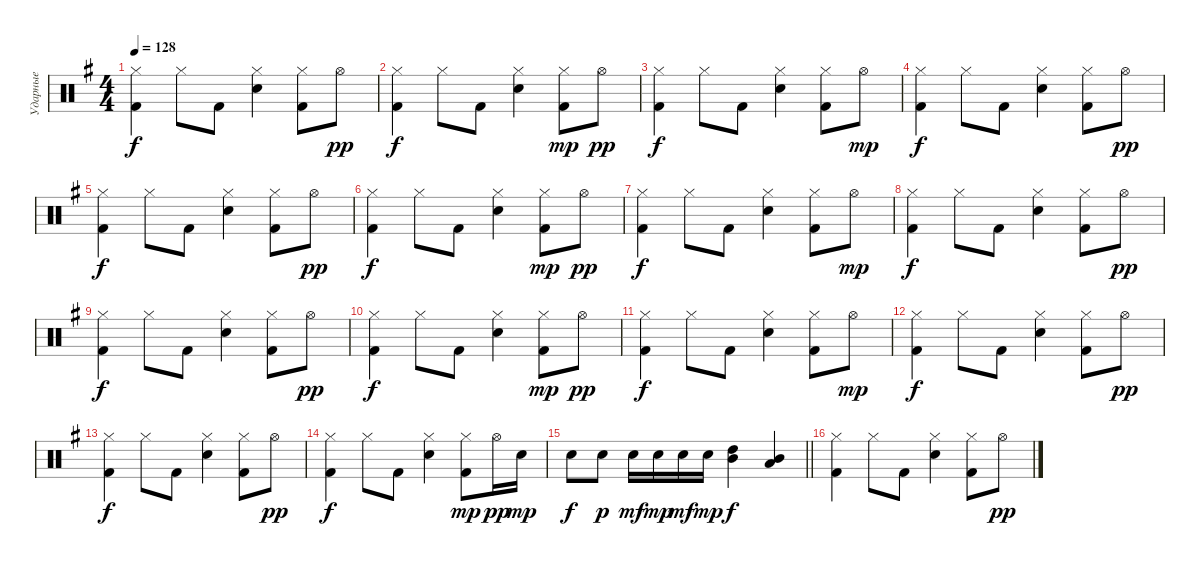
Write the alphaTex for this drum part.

\track ("Ударные" "Ударные") {instrument percussion}
\staff {score}
\articulation defaults
\ts (4 4)
\tempo 128
\clef neutral
\ks eminor
("Hi-Hat (closed)" "Kick (hit) 2").4{dy f} "Hi-Hat (closed)".8 "Kick (hit) 2".8 ("Snare (hit) 2" "Hi-Hat (closed)").4 ("Kick (hit) 2" "Hi-Hat (closed)").8 "Hi-Hat (open)".8{dy pp} |
("Hi-Hat (closed)" "Kick (hit) 2").4{dy f} "Hi-Hat (closed)".8 "Kick (hit) 2".8 ("Snare (hit) 2" "Hi-Hat (closed)").4 ("Kick (hit) 2" "Hi-Hat (closed)").8{dy mp} "Hi-Hat (open)".8{dy pp} |
("Hi-Hat (closed)" "Kick (hit) 2").4{dy f} "Hi-Hat (closed)".8 "Kick (hit) 2".8 ("Snare (hit) 2" "Hi-Hat (closed)").4 ("Kick (hit) 2" "Hi-Hat (closed)").8 "Hi-Hat (open)".8{dy mp} |
("Hi-Hat (closed)" "Kick (hit) 2").4{dy f} "Hi-Hat (closed)".8 "Kick (hit) 2".8 ("Snare (hit) 2" "Hi-Hat (closed)").4 ("Kick (hit) 2" "Hi-Hat (closed)").8 "Hi-Hat (open)".8{dy pp} |
("Hi-Hat (closed)" "Kick (hit) 2").4{dy f} "Hi-Hat (closed)".8 "Kick (hit) 2".8 ("Snare (hit) 2" "Hi-Hat (closed)").4 ("Kick (hit) 2" "Hi-Hat (closed)").8 "Hi-Hat (open)".8{dy pp} |
("Hi-Hat (closed)" "Kick (hit) 2").4{dy f} "Hi-Hat (closed)".8 "Kick (hit) 2".8 ("Snare (hit) 2" "Hi-Hat (closed)").4 ("Kick (hit) 2" "Hi-Hat (closed)").8{dy mp} "Hi-Hat (open)".8{dy pp} |
("Hi-Hat (closed)" "Kick (hit) 2").4{dy f} "Hi-Hat (closed)".8 "Kick (hit) 2".8 ("Snare (hit) 2" "Hi-Hat (closed)").4 ("Kick (hit) 2" "Hi-Hat (closed)").8 "Hi-Hat (open)".8{dy mp} |
("Hi-Hat (closed)" "Kick (hit) 2").4{dy f} "Hi-Hat (closed)".8 "Kick (hit) 2".8 ("Snare (hit) 2" "Hi-Hat (closed)").4 ("Kick (hit) 2" "Hi-Hat (closed)").8 "Hi-Hat (open)".8{dy pp} |
("Hi-Hat (closed)" "Kick (hit) 2").4{dy f} "Hi-Hat (closed)".8 "Kick (hit) 2".8 ("Snare (hit) 2" "Hi-Hat (closed)").4 ("Kick (hit) 2" "Hi-Hat (closed)").8 "Hi-Hat (open)".8{dy pp} |
("Hi-Hat (closed)" "Kick (hit) 2").4{dy f} "Hi-Hat (closed)".8 "Kick (hit) 2".8 ("Snare (hit) 2" "Hi-Hat (closed)").4 ("Kick (hit) 2" "Hi-Hat (closed)").8{dy mp} "Hi-Hat (open)".8{dy pp} |
("Hi-Hat (closed)" "Kick (hit) 2").4{dy f} "Hi-Hat (closed)".8 "Kick (hit) 2".8 ("Snare (hit) 2" "Hi-Hat (closed)").4 ("Kick (hit) 2" "Hi-Hat (closed)").8 "Hi-Hat (open)".8{dy mp} |
("Hi-Hat (closed)" "Kick (hit) 2").4{dy f} "Hi-Hat (closed)".8 "Kick (hit) 2".8 ("Snare (hit) 2" "Hi-Hat (closed)").4 ("Kick (hit) 2" "Hi-Hat (closed)").8 "Hi-Hat (open)".8{dy pp} |
("Hi-Hat (closed)" "Kick (hit) 2").4{dy f} "Hi-Hat (closed)".8 "Kick (hit) 2".8 ("Snare (hit) 2" "Hi-Hat (closed)").4 ("Kick (hit) 2" "Hi-Hat (closed)").8 "Hi-Hat (open)".8{dy pp} |
("Hi-Hat (closed)" "Kick (hit) 2").4{dy f} "Hi-Hat (closed)".8 "Kick (hit) 2".8 ("Snare (hit) 2" "Hi-Hat (closed)").4 ("Kick (hit) 2" "Hi-Hat (closed)").8{dy mp} "Hi-Hat (open)".16{dy pp} "Snare (hit) 2".16{dy mp} |
\barLineRight lightlight "Snare (hit) 2".8{dy f} "Snare (hit) 2".8{dy p} "Snare (hit) 2".16{dy mf} "Snare (hit) 2".16{dy mp} "Snare (hit) 2".16{dy mf} "Snare (hit) 2".16{dy mp}
("High Tom (hit)" "Mid Tom (hit)").4{dy f} ("Mid Tom (hit)" "Low Tom (hit)").4 |
("Hi-Hat (closed)" "Kick (hit) 2").4 "Hi-Hat (closed)".8 "Kick (hit) 2".8 ("Snare (hit) 2" "Hi-Hat (closed)").4 ("Kick (hit) 2" "Hi-Hat (closed)").8 "Hi-Hat (open)".8{dy pp}
